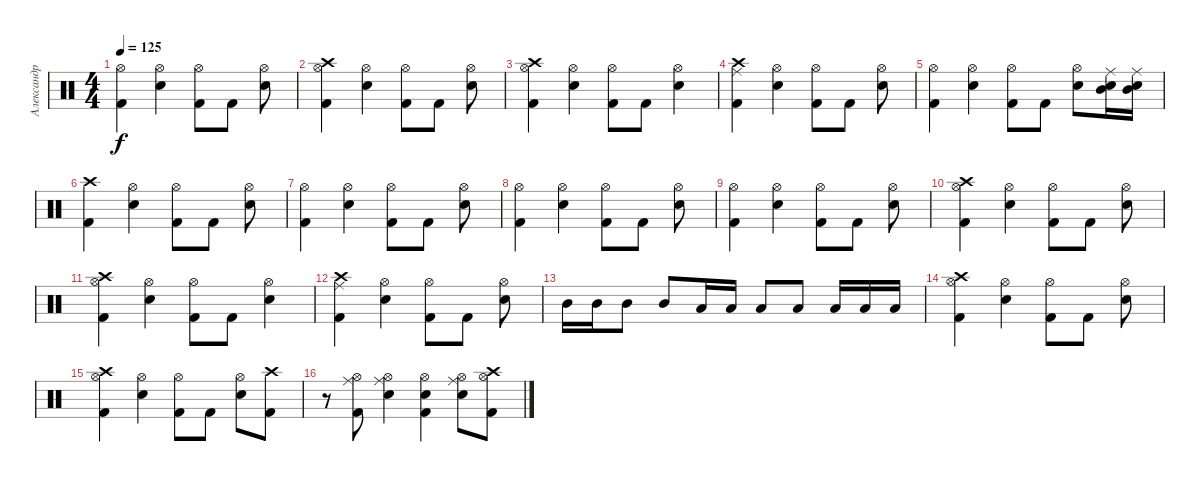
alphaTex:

\track ("Александр Манякин" "Александр ") {instrument percussion}
\staff {score}
\articulation defaults
\ts (4 4)
\tempo 125
\clef neutral
\ks c
("Hi-Hat (open)" "Kick (hit) 2").4{dy f} ("Hi-Hat (open)" "Snare (hit) 2").4 ("Hi-Hat (open)" "Kick (hit) 2").8 "Kick (hit) 2".8 ("Hi-Hat (open)" "Snare (hit) 2").8 |
("Hi-Hat (open)" "Kick (hit) 2" "Crash high (hit)").4 ("Hi-Hat (open)" "Snare (hit) 2").4 ("Hi-Hat (open)" "Kick (hit) 2").8 "Kick (hit) 2".8 ("Hi-Hat (open)" "Snare (hit) 2").8 |
("Hi-Hat (open)" "Kick (hit) 2" "Crash high (hit)").4 ("Hi-Hat (open)" "Snare (hit) 2").4 ("Hi-Hat (open)" "Kick (hit) 2").8 "Kick (hit) 2".8 ("Hi-Hat (open)" "Snare (hit) 2").4 |
("Crash high (hit)" "Kick (hit) 2" "Ride (middle)").4 ("Hi-Hat (open)" "Snare (hit) 2").4 ("Hi-Hat (open)" "Kick (hit) 2").8 "Kick (hit) 2".8 ("Hi-Hat (open)" "Snare (hit) 2").8 |
("Hi-Hat (open)" "Kick (hit) 2").4 ("Hi-Hat (open)" "Snare (hit) 2").4 ("Hi-Hat (open)" "Kick (hit) 2").8 "Kick (hit) 2".8 ("Hi-Hat (open)" "Snare (hit) 2").8 ("Mid Tom (hit)" "Ride (middle)" "Snare (hit) 2").16 ("Mid Tom (hit)" "Ride (middle)" "Snare (hit) 2").16 |
("Crash high (hit)" "Kick (hit) 2").4 ("Hi-Hat (open)" "Snare (hit) 2").4 ("Hi-Hat (open)" "Kick (hit) 2").8 "Kick (hit) 2".8 ("Hi-Hat (open)" "Snare (hit) 2").8 |
("Hi-Hat (open)" "Kick (hit) 2").4 ("Hi-Hat (open)" "Snare (hit) 2").4 ("Hi-Hat (open)" "Kick (hit) 2").8 "Kick (hit) 2".8 ("Hi-Hat (open)" "Snare (hit) 2").8 |
("Hi-Hat (open)" "Kick (hit) 2").4 ("Hi-Hat (open)" "Snare (hit) 2").4 ("Hi-Hat (open)" "Kick (hit) 2").8 "Kick (hit) 2".8 ("Hi-Hat (open)" "Snare (hit) 2").8 |
("Hi-Hat (open)" "Kick (hit) 2").4 ("Hi-Hat (open)" "Snare (hit) 2").4 ("Hi-Hat (open)" "Kick (hit) 2").8 "Kick (hit) 2".8 ("Hi-Hat (open)" "Snare (hit) 2").8 |
("Hi-Hat (open)" "Kick (hit) 2" "Crash high (hit)").4 ("Hi-Hat (open)" "Snare (hit) 2").4 ("Hi-Hat (open)" "Kick (hit) 2").8 "Kick (hit) 2".8 ("Hi-Hat (open)" "Snare (hit) 2").8 |
("Hi-Hat (open)" "Kick (hit) 2" "Crash high (hit)").4 ("Hi-Hat (open)" "Snare (hit) 2").4 ("Hi-Hat (open)" "Kick (hit) 2").8 "Kick (hit) 2".8 ("Hi-Hat (open)" "Snare (hit) 2").4 |
("Crash high (hit)" "Kick (hit) 2" "Ride (middle)").4 ("Hi-Hat (open)" "Snare (hit) 2").4 ("Hi-Hat (open)" "Kick (hit) 2").8 "Kick (hit) 2".8 ("Hi-Hat (open)" "Snare (hit) 2").8 |
"Mid Tom (hit)".16 "Mid Tom (hit)".16 "Mid Tom (hit)".8 "Mid Tom (hit)".8 "Low Tom (hit)".16 "Low Tom (hit)".16 "Low Tom (hit)".8 "Low Tom (hit)".8 "Low Floor Tom (hit)".16 "Low Floor Tom (hit)".16 "Low Floor Tom (hit)".16 |
("Hi-Hat (open)" "Kick (hit) 2" "Crash high (hit)").4 ("Hi-Hat (open)" "Snare (hit) 2").4 ("Hi-Hat (open)" "Kick (hit) 2").8 "Kick (hit) 2".8 ("Hi-Hat (open)" "Snare (hit) 2").8 |
("Hi-Hat (open)" "Kick (hit) 2" "Crash high (hit)").4 ("Hi-Hat (open)" "Snare (hit) 2").4 ("Hi-Hat (open)" "Kick (hit) 2").8 "Kick (hit) 2".8 ("Hi-Hat (open)" "Snare (hit) 2").8 ("Crash high (hit)" "Kick (hit) 2").8 |
r.8 ("Hi-Hat (open)" "Ride (middle)" "Kick (hit) 2").8 ("Hi-Hat (open)" "Ride (middle)" "Snare (hit) 2").4 ("Hi-Hat (open)" "Snare (hit)" "Kick (hit) 2").4 ("Hi-Hat (open)" "Ride (middle)" "Snare (hit) 2").8 ("Hi-Hat (open)" "Crash high (hit)" "Kick (hit) 2").8
